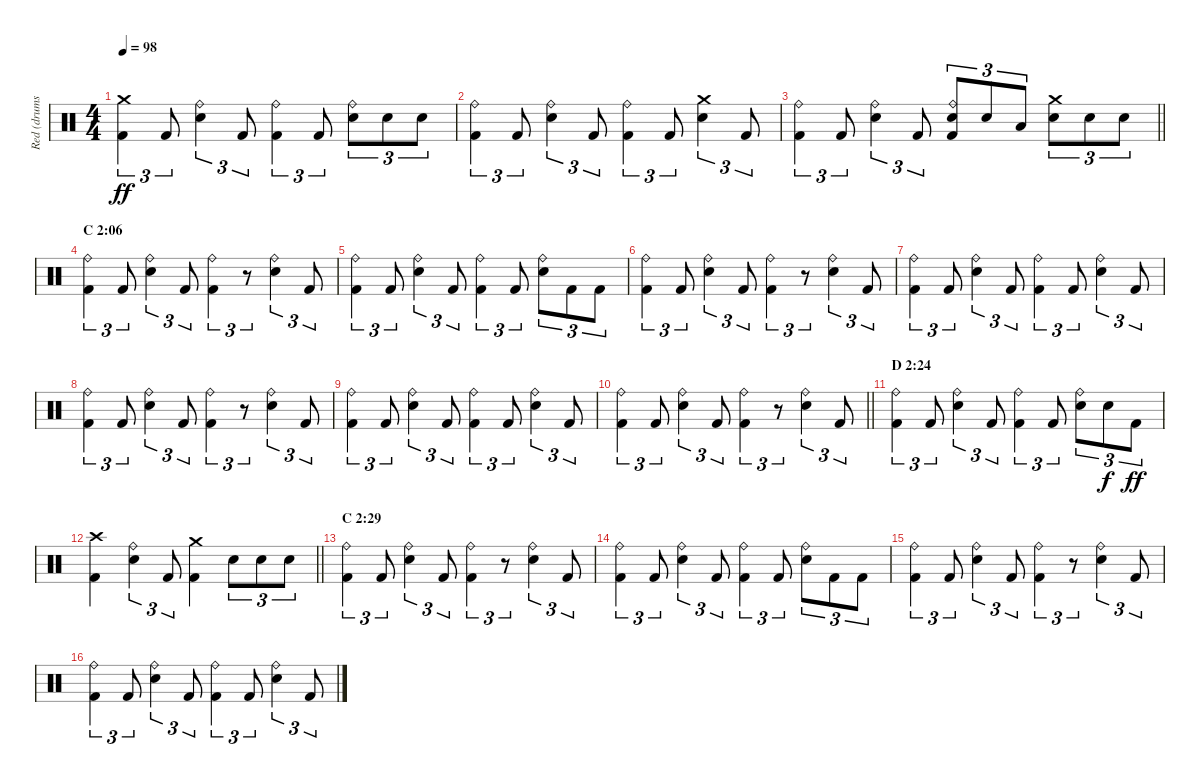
\track ("Red (drums)" "Red (drums") {instrument percussion}
\staff {score}
\articulation defaults
\ts (4 4)
\tempo 98
\clef neutral
\ks c
("Crash medium (hit)" "Kick (hit) 2").4{tu (3 2) dy ff} "Kick (hit) 2".8{tu (3 2)} ("Ride (bell)" "Electric Snare (hit)").4{tu (3 2)} "Kick (hit) 2".8{tu (3 2)} ("Ride (bell)" "Kick (hit) 2").4{tu (3 2)} "Kick (hit) 2".8{tu (3 2)} ("Ride (bell)" "Electric Snare (hit)").8{tu (3 2)} "Electric Snare (hit)".8{tu (3 2)} "Electric Snare (hit)".8{tu (3 2)} |
("Ride (bell)" "Kick (hit) 2").4{tu (3 2)} "Kick (hit) 2".8{tu (3 2)} ("Ride (bell)" "Electric Snare (hit)").4{tu (3 2)} "Kick (hit) 2".8{tu (3 2)} ("Ride (bell)" "Kick (hit) 2").4{tu (3 2)} "Kick (hit) 2".8{tu (3 2)} ("Crash medium (hit)" "Electric Snare (hit)").4{tu (3 2)} "Kick (hit) 2".8{tu (3 2)} |
\barLineRight lightlight
("Ride (bell)" "Kick (hit) 2").4{tu (3 2)} "Kick (hit) 2".8{tu (3 2)} ("Ride (bell)" "Electric Snare (hit)").4{tu (3 2)} "Kick (hit) 2".8{tu (3 2)} ("Ride (bell)" "Electric Snare (hit)" "Kick (hit) 2").8{tu (3 2)} "Electric Snare (hit)".8{tu (3 2)} "Low Tom (hit)".8{tu (3 2)} ("Crash medium (hit)" "Electric Snare (hit)").8{tu (3 2)} "Electric Snare (hit)".8{tu (3 2)} "Electric Snare (hit)".8{tu (3 2)} |
\section ("" "C 2:06 ")
("Ride (bell)" "Kick (hit) 2").4{tu (3 2)} "Kick (hit) 2".8{tu (3 2)} ("Ride (bell)" "Electric Snare (hit)").4{tu (3 2)} "Kick (hit) 2".8{tu (3 2)} ("Ride (bell)" "Kick (hit) 2").4{tu (3 2)} r.8{tu (3 2)} ("Ride (bell)" "Electric Snare (hit)").4{tu (3 2)} "Kick (hit) 2".8{tu (3 2)} |
("Ride (bell)" "Kick (hit) 2").4{tu (3 2)} "Kick (hit) 2".8{tu (3 2)} ("Ride (bell)" "Electric Snare (hit)").4{tu (3 2)} "Kick (hit) 2".8{tu (3 2)} ("Ride (bell)" "Kick (hit) 2").4{tu (3 2)} "Kick (hit) 2".8{tu (3 2)} ("Ride (bell)" "Electric Snare (hit)").8{tu (3 2)} "Kick (hit) 2".8{tu (3 2)} "Kick (hit) 2".8{tu (3 2)} |
("Ride (bell)" "Kick (hit) 2").4{tu (3 2)} "Kick (hit) 2".8{tu (3 2)} ("Ride (bell)" "Electric Snare (hit)").4{tu (3 2)} "Kick (hit) 2".8{tu (3 2)} ("Ride (bell)" "Kick (hit) 2").4{tu (3 2)} r.8{tu (3 2)} ("Ride (bell)" "Electric Snare (hit)").4{tu (3 2)} "Kick (hit) 2".8{tu (3 2)} |
("Ride (bell)" "Kick (hit) 2").4{tu (3 2)} "Kick (hit) 2".8{tu (3 2)} ("Ride (bell)" "Electric Snare (hit)").4{tu (3 2)} "Kick (hit) 2".8{tu (3 2)} ("Ride (bell)" "Kick (hit) 2").4{tu (3 2)} "Kick (hit) 2".8{tu (3 2)} ("Ride (bell)" "Electric Snare (hit)").4{tu (3 2)} "Kick (hit) 2".8{tu (3 2)} |
("Ride (bell)" "Kick (hit) 2").4{tu (3 2)} "Kick (hit) 2".8{tu (3 2)} ("Ride (bell)" "Electric Snare (hit)").4{tu (3 2)} "Kick (hit) 2".8{tu (3 2)} ("Ride (bell)" "Kick (hit) 2").4{tu (3 2)} r.8{tu (3 2)} ("Ride (bell)" "Electric Snare (hit)").4{tu (3 2)} "Kick (hit) 2".8{tu (3 2)} |
("Ride (bell)" "Kick (hit) 2").4{tu (3 2)} "Kick (hit) 2".8{tu (3 2)} ("Ride (bell)" "Electric Snare (hit)").4{tu (3 2)} "Kick (hit) 2".8{tu (3 2)} ("Ride (bell)" "Kick (hit) 2").4{tu (3 2)} "Kick (hit) 2".8{tu (3 2)} ("Ride (bell)" "Electric Snare (hit)").4{tu (3 2)} "Kick (hit) 2".8{tu (3 2)} |
\barLineRight lightlight
("Ride (bell)" "Kick (hit) 2").4{tu (3 2)} "Kick (hit) 2".8{tu (3 2)} ("Ride (bell)" "Electric Snare (hit)").4{tu (3 2)} "Kick (hit) 2".8{tu (3 2)} ("Ride (bell)" "Kick (hit) 2").4{tu (3 2)} r.8{tu (3 2)} ("Ride (bell)" "Electric Snare (hit)").4{tu (3 2)} "Kick (hit) 2".8{tu (3 2)} |
\section ("" "D 2:24")
("Ride (bell)" "Kick (hit) 2").4{tu (3 2)} "Kick (hit) 2".8{tu (3 2)} ("Ride (bell)" "Electric Snare (hit)").4{tu (3 2)} "Kick (hit) 2".8{tu (3 2)} ("Ride (bell)" "Kick (hit) 2").4{tu (3 2)} "Kick (hit) 2".8{tu (3 2)} ("Ride (bell)" "Electric Snare (hit)").8{tu (3 2)} "Electric Snare (hit)".8{tu (3 2) dy f} "Kick (hit) 2".8{tu (3 2) dy ff} |
\barLineRight lightlight
("Crash high (hit)" "Kick (hit) 2").4 ("Ride (bell)" "Electric Snare (hit)").4{tu (3 2)} "Kick (hit) 2".8{tu (3 2)} ("Crash medium (hit)" "Kick (hit) 2").4 "Electric Snare (hit)".8{tu (3 2)} "Electric Snare (hit)".8{tu (3 2)} "Electric Snare (hit)".8{tu (3 2)} |
\section ("" "C 2:29")
("Ride (bell)" "Kick (hit) 2").4{tu (3 2)} "Kick (hit) 2".8{tu (3 2)} ("Ride (bell)" "Electric Snare (hit)").4{tu (3 2)} "Kick (hit) 2".8{tu (3 2)} ("Ride (bell)" "Kick (hit) 2").4{tu (3 2)} r.8{tu (3 2)} ("Ride (bell)" "Electric Snare (hit)").4{tu (3 2)} "Kick (hit) 2".8{tu (3 2)} |
("Ride (bell)" "Kick (hit) 2").4{tu (3 2)} "Kick (hit) 2".8{tu (3 2)} ("Ride (bell)" "Electric Snare (hit)").4{tu (3 2)} "Kick (hit) 2".8{tu (3 2)} ("Ride (bell)" "Kick (hit) 2").4{tu (3 2)} "Kick (hit) 2".8{tu (3 2)} ("Ride (bell)" "Electric Snare (hit)").8{tu (3 2)} "Kick (hit) 2".8{tu (3 2)} "Kick (hit) 2".8{tu (3 2)} |
("Ride (bell)" "Kick (hit) 2").4{tu (3 2)} "Kick (hit) 2".8{tu (3 2)} ("Ride (bell)" "Electric Snare (hit)").4{tu (3 2)} "Kick (hit) 2".8{tu (3 2)} ("Ride (bell)" "Kick (hit) 2").4{tu (3 2)} r.8{tu (3 2)} ("Ride (bell)" "Electric Snare (hit)").4{tu (3 2)} "Kick (hit) 2".8{tu (3 2)} |
("Ride (bell)" "Kick (hit) 2").4{tu (3 2)} "Kick (hit) 2".8{tu (3 2)} ("Ride (bell)" "Electric Snare (hit)").4{tu (3 2)} "Kick (hit) 2".8{tu (3 2)} ("Ride (bell)" "Kick (hit) 2").4{tu (3 2)} "Kick (hit) 2".8{tu (3 2)} ("Ride (bell)" "Electric Snare (hit)").4{tu (3 2)} "Kick (hit) 2".8{tu (3 2)}
